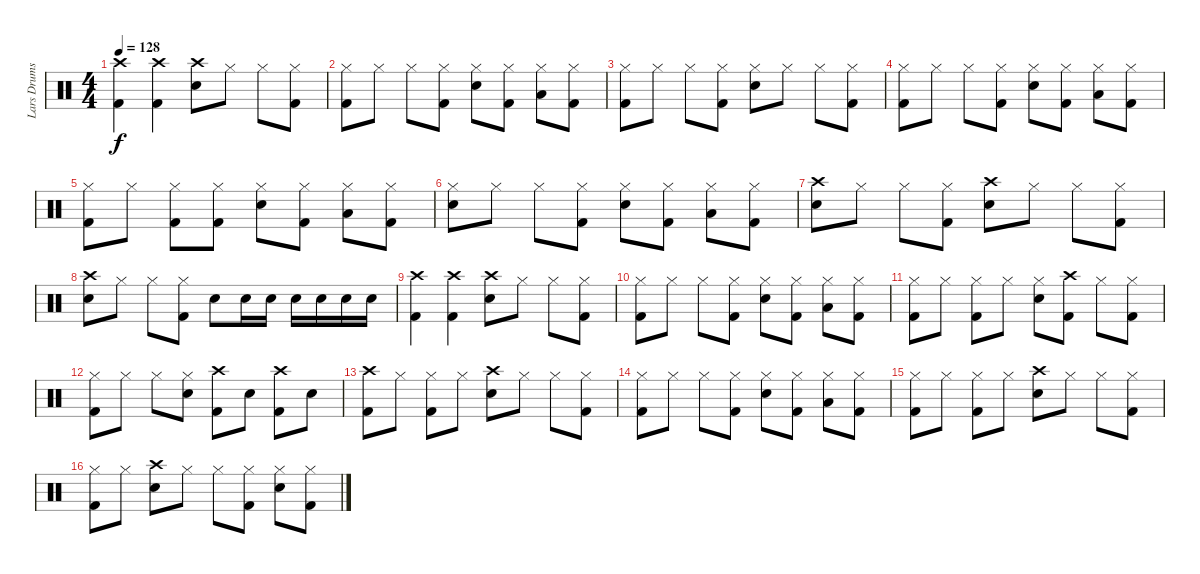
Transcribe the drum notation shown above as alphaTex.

\track ("Lars Drums" "Lars Drums") {instrument percussion}
\staff {score}
\articulation defaults
\ts (4 4)
\tempo 128
\clef neutral
\ks c
("Crash high (hit)" "Kick (hit) 2").4{dy f} ("Crash high (hit)" "Kick (hit) 2").4 ("Crash high (hit)" "Electric Snare (hit)").8 "Hi-Hat (closed)".8 "Hi-Hat (closed)".8 ("Hi-Hat (closed)" "Kick (hit) 2").8 |
("Hi-Hat (closed)" "Kick (hit) 2").8 "Hi-Hat (closed)".8 "Hi-Hat (closed)".8 ("Hi-Hat (closed)" "Kick (hit) 2").8 ("Hi-Hat (closed)" "Electric Snare (hit)").8 ("Hi-Hat (closed)" "Kick (hit) 2").8 ("Hi-Hat (closed)" "Low Floor Tom (hit)").8 ("Hi-Hat (closed)" "Kick (hit) 2").8 |
("Hi-Hat (closed)" "Kick (hit) 2").8 "Hi-Hat (closed)".8 "Hi-Hat (closed)".8 ("Hi-Hat (closed)" "Kick (hit) 2").8 ("Hi-Hat (closed)" "Electric Snare (hit)").8 "Hi-Hat (closed)".8 "Hi-Hat (closed)".8 ("Hi-Hat (closed)" "Kick (hit) 2").8 |
("Hi-Hat (closed)" "Kick (hit) 2").8 "Hi-Hat (closed)".8 "Hi-Hat (closed)".8 ("Hi-Hat (closed)" "Kick (hit) 2").8 ("Hi-Hat (closed)" "Electric Snare (hit)").8 ("Hi-Hat (closed)" "Kick (hit) 2").8 ("Hi-Hat (closed)" "Low Floor Tom (hit)").8 ("Hi-Hat (closed)" "Kick (hit) 2").8 |
("Hi-Hat (closed)" "Kick (hit) 2").8 "Hi-Hat (closed)".8 ("Hi-Hat (closed)" "Kick (hit) 2").8 ("Hi-Hat (closed)" "Kick (hit) 2").8 ("Hi-Hat (closed)" "Electric Snare (hit)").8 ("Hi-Hat (closed)" "Kick (hit) 2").8 ("Hi-Hat (closed)" "Low Floor Tom (hit)").8 ("Hi-Hat (closed)" "Kick (hit) 2").8 |
("Hi-Hat (closed)" "Electric Snare (hit)").8 "Hi-Hat (closed)".8 "Hi-Hat (closed)".8 ("Hi-Hat (closed)" "Kick (hit) 2").8 ("Hi-Hat (closed)" "Electric Snare (hit)").8 ("Hi-Hat (closed)" "Kick (hit) 2").8 ("Hi-Hat (closed)" "Low Floor Tom (hit)").8 ("Hi-Hat (closed)" "Kick (hit) 2").8 |
("Crash high (hit)" "Electric Snare (hit)").8 "Hi-Hat (closed)".8 "Hi-Hat (closed)".8 ("Hi-Hat (closed)" "Kick (hit) 2").8 ("Crash high (hit)" "Electric Snare (hit)").8 "Hi-Hat (closed)".8 "Hi-Hat (closed)".8 ("Hi-Hat (closed)" "Kick (hit) 2").8 |
("Crash high (hit)" "Electric Snare (hit)").8 "Hi-Hat (closed)".8 "Hi-Hat (closed)".8 ("Hi-Hat (closed)" "Kick (hit) 2").8 "Electric Snare (hit)".8 "Electric Snare (hit)".16 "Electric Snare (hit)".16 "Electric Snare (hit)".16 "Electric Snare (hit)".16 "Electric Snare (hit)".16 "Electric Snare (hit)".16 |
("Crash high (hit)" "Kick (hit) 2").4 ("Crash high (hit)" "Kick (hit) 2").4 ("Crash high (hit)" "Electric Snare (hit)").8 "Hi-Hat (closed)".8 "Hi-Hat (closed)".8 ("Hi-Hat (closed)" "Kick (hit) 2").8 |
("Hi-Hat (closed)" "Kick (hit) 2").8 "Hi-Hat (closed)".8 "Hi-Hat (closed)".8 ("Hi-Hat (closed)" "Kick (hit) 2").8 ("Hi-Hat (closed)" "Electric Snare (hit)").8 ("Hi-Hat (closed)" "Kick (hit) 2").8 ("Hi-Hat (closed)" "Low Floor Tom (hit)").8 ("Hi-Hat (closed)" "Kick (hit) 2").8 |
("Hi-Hat (closed)" "Kick (hit) 2").8 "Hi-Hat (closed)".8 ("Hi-Hat (closed)" "Kick (hit) 2").8 "Hi-Hat (closed)".8 ("Hi-Hat (closed)" "Electric Snare (hit)").8 ("Crash high (hit)" "Kick (hit) 2").8 "Hi-Hat (closed)".8 ("Hi-Hat (closed)" "Kick (hit) 2").8 |
("Hi-Hat (closed)" "Kick (hit) 2").8 "Hi-Hat (closed)".8 "Hi-Hat (closed)".8 ("Hi-Hat (closed)" "Electric Snare (hit)").8 ("Crash high (hit)" "Kick (hit) 2").8 "Electric Snare (hit)".8 ("Crash high (hit)" "Kick (hit) 2").8 "Electric Snare (hit)".8 |
("Crash high (hit)" "Kick (hit) 2").8 "Hi-Hat (closed)".8 ("Hi-Hat (closed)" "Kick (hit) 2").8 "Hi-Hat (closed)".8 ("Crash high (hit)" "Electric Snare (hit)").8 "Hi-Hat (closed)".8 "Hi-Hat (closed)".8 ("Hi-Hat (closed)" "Kick (hit) 2").8 |
("Hi-Hat (closed)" "Kick (hit) 2").8 "Hi-Hat (closed)".8 "Hi-Hat (closed)".8 ("Hi-Hat (closed)" "Kick (hit) 2").8 ("Hi-Hat (closed)" "Electric Snare (hit)").8 ("Hi-Hat (closed)" "Kick (hit) 2").8 ("Hi-Hat (closed)" "Low Floor Tom (hit)").8 ("Hi-Hat (closed)" "Kick (hit) 2").8 |
("Hi-Hat (closed)" "Kick (hit) 2").8 "Hi-Hat (closed)".8 ("Hi-Hat (closed)" "Kick (hit) 2").8 "Hi-Hat (closed)".8 ("Crash high (hit)" "Electric Snare (hit)").8 "Hi-Hat (closed)".8 "Hi-Hat (closed)".8 ("Hi-Hat (closed)" "Kick (hit) 2").8 |
("Hi-Hat (closed)" "Kick (hit) 2").8 "Hi-Hat (closed)".8 ("Crash high (hit)" "Electric Snare (hit)").8 "Hi-Hat (closed)".8 "Hi-Hat (closed)".8 ("Hi-Hat (closed)" "Kick (hit) 2").8 ("Hi-Hat (closed)" "Electric Snare (hit)").8 ("Hi-Hat (closed)" "Kick (hit) 2").8
